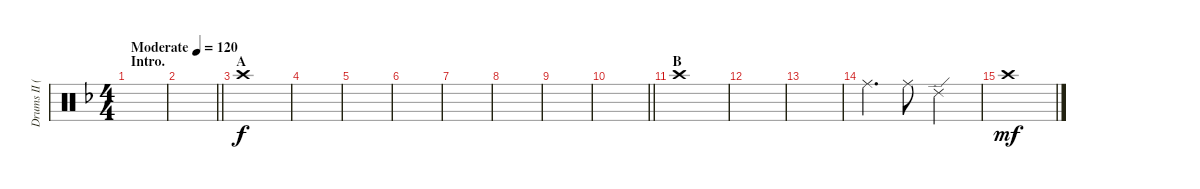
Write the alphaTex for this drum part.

\track ("Drums II (Tainaka Ritsu)" "Drums II (") {instrument percussion}
\staff {score}
\articulation defaults
\ts (4 4)
\section ("" "Intro.")
\tempo (120 "Moderate")
\clef neutral
\ks f
|
\barLineRight lightlight
|
\section ("" "A")
"Crash high (hit)".1 |
|
|
|
|
|
|
\barLineRight lightlight
|
\section ("" "B")
"Crash high (hit)".1 |
|
|
"Ride (middle)".4{d dy f} "Ride (middle)".8 "Ride (edge) 2".2 |
"Crash high (hit)".1{dy mf}
